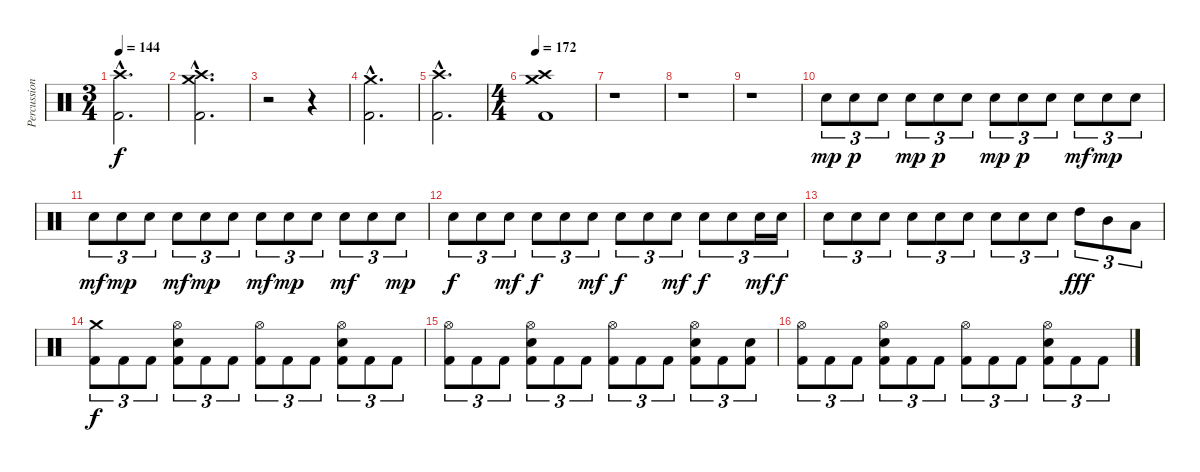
\track ("Percussion" "Percussion") {instrument percussion}
\staff {score}
\articulation defaults
\ts (3 4)
\tempo 144
\clef neutral
\ks c
("Crash high (hit)"{hac} "Kick (hit) 2"{hac}).2{d dy f} |
("Crash medium (hit)"{hac} "Crash high (hit)"{hac} "Kick (hit) 2"{hac}).2{d} |
r.2 r.4 |
("Crash medium (hit)"{hac} "Kick (hit) 2"{hac}).2{d} |
("Crash high (hit)"{hac} "Kick (hit) 2"{hac}).2{d} |
\ts (4 4)
\section ("" "")
\tempo 172
("Crash medium (hit)" "Crash high (hit)" "Kick (hit) 2").1 |
r.1 |
r.1 |
r.1 |
"Snare (hit) 2".8{tu (3 2) dy mp} "Snare (hit) 2".8{tu (3 2) dy p} "Snare (hit) 2".8{tu (3 2)} "Snare (hit) 2".8{tu (3 2) dy mp} "Snare (hit) 2".8{tu (3 2) dy p} "Snare (hit) 2".8{tu (3 2)} "Snare (hit) 2".8{tu (3 2) dy mp} "Snare (hit) 2".8{tu (3 2) dy p} "Snare (hit) 2".8{tu (3 2)} "Snare (hit) 2".8{tu (3 2) dy mf} "Snare (hit) 2".8{tu (3 2) dy mp} "Snare (hit) 2".8{tu (3 2)} |
"Snare (hit) 2".8{tu (3 2) dy mf} "Snare (hit) 2".8{tu (3 2) dy mp} "Snare (hit) 2".8{tu (3 2)} "Snare (hit) 2".8{tu (3 2) dy mf} "Snare (hit) 2".8{tu (3 2) dy mp} "Snare (hit) 2".8{tu (3 2)} "Snare (hit) 2".8{tu (3 2) dy mf} "Snare (hit) 2".8{tu (3 2) dy mp} "Snare (hit) 2".8{tu (3 2)} "Snare (hit) 2".8{tu (3 2) dy mf} "Snare (hit) 2".8{tu (3 2)} "Snare (hit) 2".8{tu (3 2) dy mp} |
"Snare (hit) 2".8{tu (3 2) dy f} "Snare (hit) 2".8{tu (3 2)} "Snare (hit) 2".8{tu (3 2) dy mf} "Snare (hit) 2".8{tu (3 2) dy f} "Snare (hit) 2".8{tu (3 2)} "Snare (hit) 2".8{tu (3 2) dy mf} "Snare (hit) 2".8{tu (3 2) dy f} "Snare (hit) 2".8{tu (3 2)} "Snare (hit) 2".8{tu (3 2) dy mf} "Snare (hit) 2".8{tu (3 2) dy f} "Snare (hit) 2".8{tu (3 2)} "Snare (hit) 2".16{tu (3 2) dy mf} "Snare (hit) 2".16{tu (3 2) dy f} |
"Snare (hit) 2".8{tu (3 2)} "Snare (hit) 2".8{tu (3 2)} "Snare (hit) 2".8{tu (3 2)} "Snare (hit) 2".8{tu (3 2)} "Snare (hit) 2".8{tu (3 2)} "Snare (hit) 2".8{tu (3 2)} "Snare (hit) 2".8{tu (3 2)} "Snare (hit) 2".8{tu (3 2)} "Snare (hit) 2".8{tu (3 2)} "High Tom (hit)".8{tu (3 2) dy fff} "Mid Tom (hit)".8{tu (3 2)} "Low Tom (hit)".8{tu (3 2)} |
("Crash medium (hit)" "Kick (hit) 2").8{tu (3 2) dy f} "Kick (hit) 2".8{tu (3 2)} "Kick (hit) 2".8{tu (3 2)} ("Hi-Hat (open)" "Snare (hit) 2" "Kick (hit) 2").8{tu (3 2)} "Kick (hit) 2".8{tu (3 2)} "Kick (hit) 2".8{tu (3 2)} ("Hi-Hat (open)" "Kick (hit) 2").8{tu (3 2)} "Kick (hit) 2".8{tu (3 2)} "Kick (hit) 2".8{tu (3 2)} ("Hi-Hat (open)" "Snare (hit) 2" "Kick (hit) 2").8{tu (3 2)} "Kick (hit) 2".8{tu (3 2)} "Kick (hit) 2".8{tu (3 2)} |
("Hi-Hat (open)" "Kick (hit) 2").8{tu (3 2)} "Kick (hit) 2".8{tu (3 2)} "Kick (hit) 2".8{tu (3 2)} ("Hi-Hat (open)" "Snare (hit) 2" "Kick (hit) 2").8{tu (3 2)} "Kick (hit) 2".8{tu (3 2)} "Kick (hit) 2".8{tu (3 2)} ("Hi-Hat (open)" "Kick (hit) 2").8{tu (3 2)} "Kick (hit) 2".8{tu (3 2)} "Kick (hit) 2".8{tu (3 2)} ("Hi-Hat (open)" "Snare (hit) 2" "Kick (hit) 2").8{tu (3 2)} "Kick (hit) 2".8{tu (3 2)} ("Snare (hit) 2" "Kick (hit) 2").8{tu (3 2)} |
("Hi-Hat (open)" "Kick (hit) 2").8{tu (3 2)} "Kick (hit) 2".8{tu (3 2)} "Kick (hit) 2".8{tu (3 2)} ("Hi-Hat (open)" "Snare (hit) 2" "Kick (hit) 2").8{tu (3 2)} "Kick (hit) 2".8{tu (3 2)} "Kick (hit) 2".8{tu (3 2)} ("Hi-Hat (open)" "Kick (hit) 2").8{tu (3 2)} "Kick (hit) 2".8{tu (3 2)} "Kick (hit) 2".8{tu (3 2)} ("Hi-Hat (open)" "Snare (hit) 2" "Kick (hit) 2").8{tu (3 2)} "Kick (hit) 2".8{tu (3 2)} "Kick (hit) 2".8{tu (3 2)}
